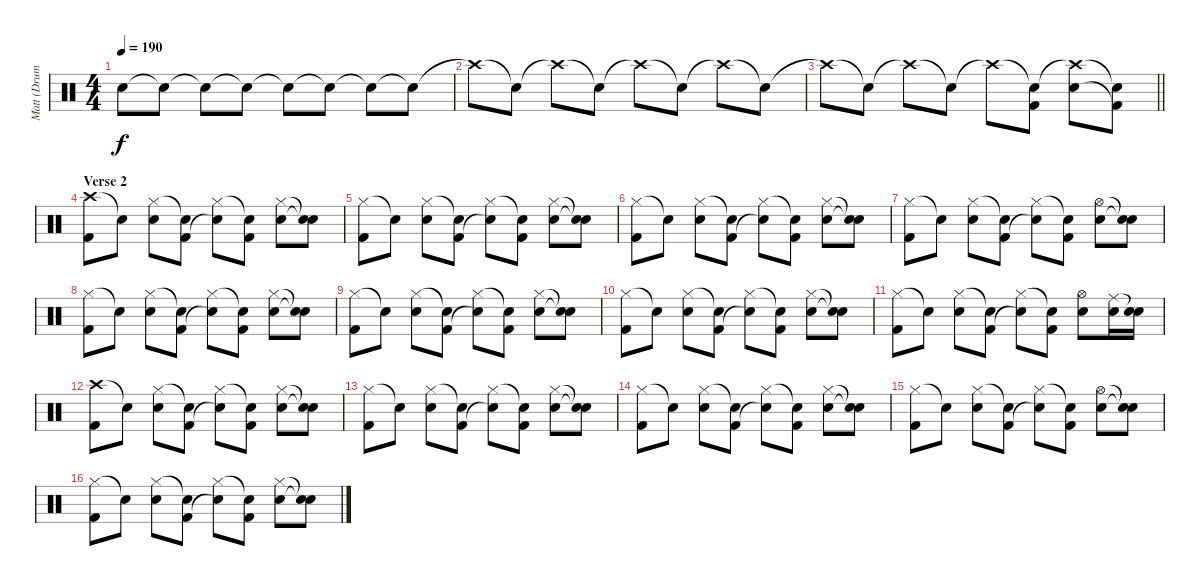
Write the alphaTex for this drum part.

\track ("Matt (Drums)" "Matt (Drum") {instrument percussion}
\staff {score}
\articulation defaults
\ts (4 4)
\tempo 190
\clef neutral
\ks c "Snare (hit)"{t}.8{dy f} "Snare (hit)"{t}.8 "Snare (hit)"{t}.8 "Snare (hit)"{t}.8 "Snare (hit)"{t}.8 "Snare (hit)"{t}.8 "Snare (hit)"{t}.8 "Snare (hit)"{t}.8
|
"Crash high (hit)"{t}.8 "Snare (hit)"{t}.8 "Crash high (hit)"{t}.8 "Snare (hit)"{t}.8 "Crash high (hit)"{t}.8 "Snare (hit)"{t}.8 "Crash high (hit)"{t}.8 "Snare (hit)"{t}.8 |
\barLineRight lightlight "Crash high (hit)"{t}.8 "Snare (hit)"{t}.8 "Crash high (hit)"{t}.8 "Snare (hit)"{t}.8 "Crash high (hit)"{t}.8
("Snare (hit)"{t} "Kick (hit) 2").8 ("Crash high (hit)"{t} "Snare (hit) 2").8 ("Snare (hit)"{t} "Kick (hit) 2"{t}).8 |
\section ("" "Verse 2")
("Crash high (hit)" "Kick (hit) 2").8 "Snare (hit)"{t}.8 ("Hi-Hat (closed)" "Snare (hit) 2").8 ("Snare (hit)"{t} "Kick (hit) 2").8 ("Hi-Hat (closed)" "Snare (hit)"{t}).8 ("Snare (hit)"{t} "Kick (hit) 2").8 ("Hi-Hat (closed)" "Snare (hit) 2").8 ("Snare (hit)"{t} "Snare (hit)"{t}).8 |
("Hi-Hat (closed)" "Kick (hit) 2").8 "Snare (hit)"{t}.8 ("Hi-Hat (closed)" "Snare (hit) 2").8 ("Snare (hit)"{t} "Kick (hit) 2").8 ("Hi-Hat (closed)" "Snare (hit)"{t}).8 ("Snare (hit)"{t} "Kick (hit) 2").8 ("Hi-Hat (closed)" "Snare (hit) 2").8 ("Snare (hit)"{t} "Snare (hit)"{t}).8 |
("Hi-Hat (closed)" "Kick (hit) 2").8 "Snare (hit)"{t}.8 ("Hi-Hat (closed)" "Snare (hit) 2").8 ("Snare (hit)"{t} "Kick (hit) 2").8 ("Hi-Hat (closed)" "Snare (hit)"{t}).8 ("Snare (hit)"{t} "Kick (hit) 2").8 ("Hi-Hat (closed)" "Snare (hit) 2").8 ("Snare (hit)"{t} "Snare (hit)"{t}).8 |
("Hi-Hat (closed)" "Kick (hit) 2").8 "Snare (hit)"{t}.8 ("Hi-Hat (closed)" "Snare (hit) 2").8 ("Snare (hit)"{t} "Kick (hit) 2").8 ("Hi-Hat (closed)" "Snare (hit)"{t}).8 ("Snare (hit)"{t} "Kick (hit) 2").8 ("Hi-Hat (open)" "Snare (hit) 2").8 ("Snare (hit)"{t} "Snare (hit)"{t}).8 |
("Hi-Hat (closed)" "Kick (hit) 2").8 "Snare (hit)"{t}.8 ("Hi-Hat (closed)" "Snare (hit) 2").8 ("Snare (hit)"{t} "Kick (hit) 2").8 ("Hi-Hat (closed)" "Snare (hit)"{t}).8 ("Snare (hit)"{t} "Kick (hit) 2").8 ("Hi-Hat (closed)" "Snare (hit) 2").8 ("Snare (hit)"{t} "Snare (hit)"{t}).8 |
("Hi-Hat (closed)" "Kick (hit) 2").8 "Snare (hit)"{t}.8 ("Hi-Hat (closed)" "Snare (hit) 2").8 ("Snare (hit)"{t} "Kick (hit) 2").8 ("Hi-Hat (closed)" "Snare (hit)"{t}).8 ("Snare (hit)"{t} "Kick (hit) 2").8 ("Hi-Hat (closed)" "Snare (hit) 2").8 ("Snare (hit)"{t} "Snare (hit)"{t}).8 |
("Hi-Hat (closed)" "Kick (hit) 2").8 "Snare (hit)"{t}.8 ("Hi-Hat (closed)" "Snare (hit) 2").8 ("Snare (hit)"{t} "Kick (hit) 2").8 ("Hi-Hat (closed)" "Snare (hit)"{t}).8 ("Snare (hit)"{t} "Kick (hit) 2").8 ("Hi-Hat (closed)" "Snare (hit) 2").8 ("Snare (hit)"{t} "Snare (hit)"{t}).8 |
("Hi-Hat (closed)" "Kick (hit) 2").8 "Snare (hit)"{t}.8 ("Hi-Hat (closed)" "Snare (hit) 2").8 ("Snare (hit)"{t} "Kick (hit) 2").8 ("Hi-Hat (closed)" "Snare (hit)"{t}).8 ("Snare (hit)"{t} "Kick (hit) 2").8 ("Hi-Hat (open)" "Snare (hit) 2").8 ("Ride (middle)" "Snare (hit) 2").16 ("Snare (hit)"{t} "Snare (hit) 2").16 |
("Crash high (hit)" "Kick (hit) 2").8 "Snare (hit)"{t}.8 ("Hi-Hat (closed)" "Snare (hit) 2").8 ("Snare (hit)"{t} "Kick (hit) 2").8 ("Hi-Hat (closed)" "Snare (hit)"{t}).8 ("Snare (hit)"{t} "Kick (hit) 2").8 ("Hi-Hat (closed)" "Snare (hit) 2").8 ("Snare (hit)"{t} "Snare (hit)"{t}).8 |
("Hi-Hat (closed)" "Kick (hit) 2").8 "Snare (hit)"{t}.8 ("Hi-Hat (closed)" "Snare (hit) 2").8 ("Snare (hit)"{t} "Kick (hit) 2").8 ("Hi-Hat (closed)" "Snare (hit)"{t}).8 ("Snare (hit)"{t} "Kick (hit) 2").8 ("Hi-Hat (closed)" "Snare (hit) 2").8 ("Snare (hit)"{t} "Snare (hit)"{t}).8 |
("Hi-Hat (closed)" "Kick (hit) 2").8 "Snare (hit)"{t}.8 ("Hi-Hat (closed)" "Snare (hit) 2").8 ("Snare (hit)"{t} "Kick (hit) 2").8 ("Hi-Hat (closed)" "Snare (hit)"{t}).8 ("Snare (hit)"{t} "Kick (hit) 2").8 ("Hi-Hat (closed)" "Snare (hit) 2").8 ("Snare (hit)"{t} "Snare (hit)"{t}).8 |
("Hi-Hat (closed)" "Kick (hit) 2").8 "Snare (hit)"{t}.8 ("Hi-Hat (closed)" "Snare (hit) 2").8 ("Snare (hit)"{t} "Kick (hit) 2").8 ("Hi-Hat (closed)" "Snare (hit)"{t}).8 ("Snare (hit)"{t} "Kick (hit) 2").8 ("Hi-Hat (open)" "Snare (hit) 2").8 ("Snare (hit)"{t} "Snare (hit)"{t}).8 |
("Hi-Hat (closed)" "Kick (hit) 2").8 "Snare (hit)"{t}.8 ("Hi-Hat (closed)" "Snare (hit) 2").8 ("Snare (hit)"{t} "Kick (hit) 2").8 ("Hi-Hat (closed)" "Snare (hit)"{t}).8 ("Snare (hit)"{t} "Kick (hit) 2").8 ("Hi-Hat (closed)" "Snare (hit) 2").8 ("Snare (hit)"{t} "Snare (hit)"{t}).8
